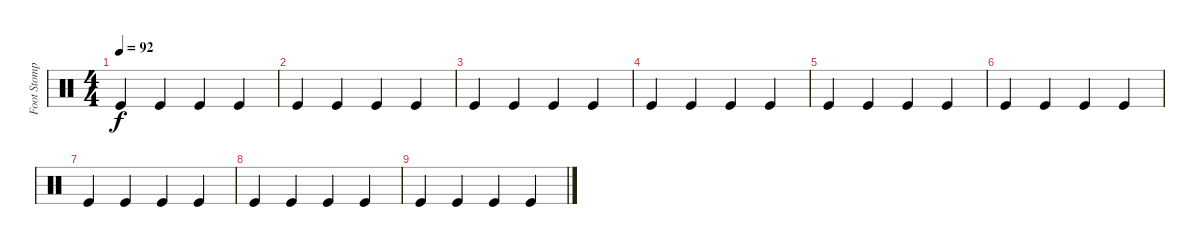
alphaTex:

\track ("Foot Stomp" "Foot Stomp") {instrument percussion}
\staff {score}
\articulation defaults
\ts (4 4)
\tempo 92
\clef neutral
\ks c "Kick (hit)".4{dy f} "Kick (hit)".4 "Kick (hit)".4 "Kick (hit)".4
|
"Kick (hit)".4 "Kick (hit)".4 "Kick (hit)".4 "Kick (hit)".4 |
"Kick (hit)".4 "Kick (hit)".4 "Kick (hit)".4 "Kick (hit)".4 |
"Kick (hit)".4 "Kick (hit)".4 "Kick (hit)".4 "Kick (hit)".4 |
"Kick (hit)".4 "Kick (hit)".4 "Kick (hit)".4 "Kick (hit)".4 |
"Kick (hit)".4 "Kick (hit)".4 "Kick (hit)".4 "Kick (hit)".4 |
"Kick (hit)".4 "Kick (hit)".4 "Kick (hit)".4 "Kick (hit)".4 |
"Kick (hit)".4 "Kick (hit)".4 "Kick (hit)".4 "Kick (hit)".4 |
"Kick (hit)".4 "Kick (hit)".4 "Kick (hit)".4 "Kick (hit)".4
